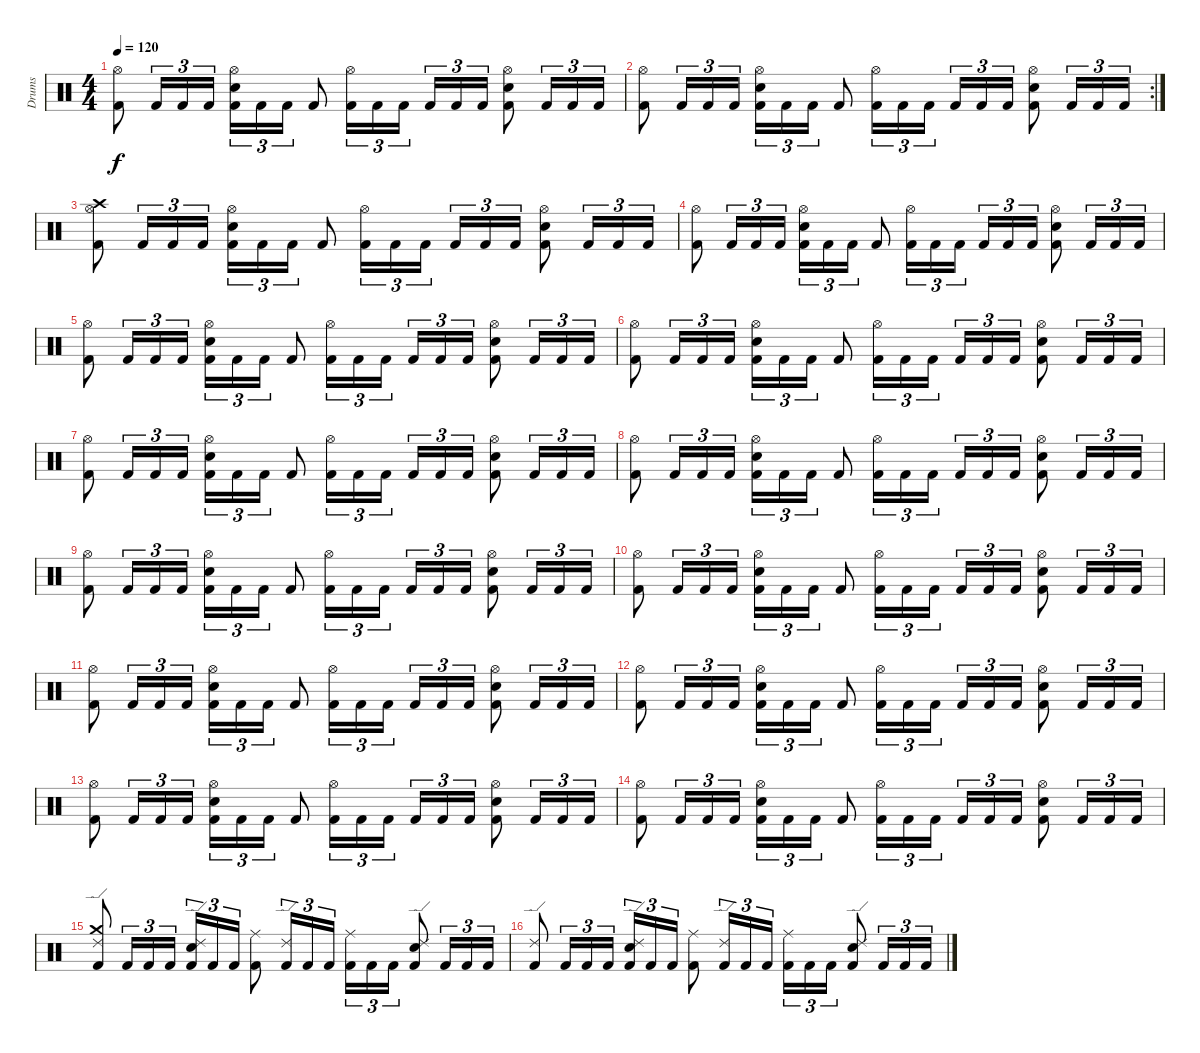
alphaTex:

\track ("Drums" "Drums") {instrument percussion}
\staff {score}
\articulation defaults
\ts (4 4)
\tempo 120
\clef neutral
\ks c
("Hi-Hat (open)" "Kick (hit) 2").8{dy f} "Kick (hit) 2".16{tu (3 2)} "Kick (hit) 2".16{tu (3 2)} "Kick (hit) 2".16{tu (3 2)} ("Hi-Hat (open)" "Electric Snare (hit)" "Kick (hit) 2").16{tu (3 2)} "Kick (hit) 2".16{tu (3 2)} "Kick (hit) 2".16{tu (3 2)} "Kick (hit) 2".8 ("Hi-Hat (open)" "Kick (hit) 2").16{tu (3 2)} "Kick (hit) 2".16{tu (3 2)} "Kick (hit) 2".16{tu (3 2)} "Kick (hit) 2".16{tu (3 2)} "Kick (hit) 2".16{tu (3 2)} "Kick (hit) 2".16{tu (3 2)} ("Hi-Hat (open)" "Electric Snare (hit)" "Kick (hit) 2").8 "Kick (hit) 2".16{tu (3 2)} "Kick (hit) 2".16{tu (3 2)} "Kick (hit) 2".16{tu (3 2)} |
\rc 2
("Hi-Hat (open)" "Kick (hit) 2").8 "Kick (hit) 2".16{tu (3 2)} "Kick (hit) 2".16{tu (3 2)} "Kick (hit) 2".16{tu (3 2)} ("Hi-Hat (open)" "Electric Snare (hit)" "Kick (hit) 2").16{tu (3 2)} "Kick (hit) 2".16{tu (3 2)} "Kick (hit) 2".16{tu (3 2)} "Kick (hit) 2".8 ("Hi-Hat (open)" "Kick (hit) 2").16{tu (3 2)} "Kick (hit) 2".16{tu (3 2)} "Kick (hit) 2".16{tu (3 2)} "Kick (hit) 2".16{tu (3 2)} "Kick (hit) 2".16{tu (3 2)} "Kick (hit) 2".16{tu (3 2)} ("Hi-Hat (open)" "Electric Snare (hit)" "Kick (hit) 2").8 "Kick (hit) 2".16{tu (3 2)} "Kick (hit) 2".16{tu (3 2)} "Kick (hit) 2".16{tu (3 2)} |
("Crash high (hit)" "Hi-Hat (open)" "Kick (hit) 2").8 "Kick (hit) 2".16{tu (3 2)} "Kick (hit) 2".16{tu (3 2)} "Kick (hit) 2".16{tu (3 2)} ("Hi-Hat (open)" "Electric Snare (hit)" "Kick (hit) 2").16{tu (3 2)} "Kick (hit) 2".16{tu (3 2)} "Kick (hit) 2".16{tu (3 2)} "Kick (hit) 2".8 ("Hi-Hat (open)" "Kick (hit) 2").16{tu (3 2)} "Kick (hit) 2".16{tu (3 2)} "Kick (hit) 2".16{tu (3 2)} "Kick (hit) 2".16{tu (3 2)} "Kick (hit) 2".16{tu (3 2)} "Kick (hit) 2".16{tu (3 2)} ("Hi-Hat (open)" "Electric Snare (hit)" "Kick (hit) 2").8 "Kick (hit) 2".16{tu (3 2)} "Kick (hit) 2".16{tu (3 2)} "Kick (hit) 2".16{tu (3 2)} |
("Hi-Hat (open)" "Kick (hit) 2").8 "Kick (hit) 2".16{tu (3 2)} "Kick (hit) 2".16{tu (3 2)} "Kick (hit) 2".16{tu (3 2)} ("Hi-Hat (open)" "Electric Snare (hit)" "Kick (hit) 2").16{tu (3 2)} "Kick (hit) 2".16{tu (3 2)} "Kick (hit) 2".16{tu (3 2)} "Kick (hit) 2".8 ("Hi-Hat (open)" "Kick (hit) 2").16{tu (3 2)} "Kick (hit) 2".16{tu (3 2)} "Kick (hit) 2".16{tu (3 2)} "Kick (hit) 2".16{tu (3 2)} "Kick (hit) 2".16{tu (3 2)} "Kick (hit) 2".16{tu (3 2)} ("Hi-Hat (open)" "Electric Snare (hit)" "Kick (hit) 2").8 "Kick (hit) 2".16{tu (3 2)} "Kick (hit) 2".16{tu (3 2)} "Kick (hit) 2".16{tu (3 2)} |
("Hi-Hat (open)" "Kick (hit) 2").8 "Kick (hit) 2".16{tu (3 2)} "Kick (hit) 2".16{tu (3 2)} "Kick (hit) 2".16{tu (3 2)} ("Hi-Hat (open)" "Electric Snare (hit)" "Kick (hit) 2").16{tu (3 2)} "Kick (hit) 2".16{tu (3 2)} "Kick (hit) 2".16{tu (3 2)} "Kick (hit) 2".8 ("Hi-Hat (open)" "Kick (hit) 2").16{tu (3 2)} "Kick (hit) 2".16{tu (3 2)} "Kick (hit) 2".16{tu (3 2)} "Kick (hit) 2".16{tu (3 2)} "Kick (hit) 2".16{tu (3 2)} "Kick (hit) 2".16{tu (3 2)} ("Hi-Hat (open)" "Electric Snare (hit)" "Kick (hit) 2").8 "Kick (hit) 2".16{tu (3 2)} "Kick (hit) 2".16{tu (3 2)} "Kick (hit) 2".16{tu (3 2)} |
("Hi-Hat (open)" "Kick (hit) 2").8 "Kick (hit) 2".16{tu (3 2)} "Kick (hit) 2".16{tu (3 2)} "Kick (hit) 2".16{tu (3 2)} ("Hi-Hat (open)" "Electric Snare (hit)" "Kick (hit) 2").16{tu (3 2)} "Kick (hit) 2".16{tu (3 2)} "Kick (hit) 2".16{tu (3 2)} "Kick (hit) 2".8 ("Hi-Hat (open)" "Kick (hit) 2").16{tu (3 2)} "Kick (hit) 2".16{tu (3 2)} "Kick (hit) 2".16{tu (3 2)} "Kick (hit) 2".16{tu (3 2)} "Kick (hit) 2".16{tu (3 2)} "Kick (hit) 2".16{tu (3 2)} ("Hi-Hat (open)" "Electric Snare (hit)" "Kick (hit) 2").8 "Kick (hit) 2".16{tu (3 2)} "Kick (hit) 2".16{tu (3 2)} "Kick (hit) 2".16{tu (3 2)} |
("Hi-Hat (open)" "Kick (hit) 2").8 "Kick (hit) 2".16{tu (3 2)} "Kick (hit) 2".16{tu (3 2)} "Kick (hit) 2".16{tu (3 2)} ("Hi-Hat (open)" "Electric Snare (hit)" "Kick (hit) 2").16{tu (3 2)} "Kick (hit) 2".16{tu (3 2)} "Kick (hit) 2".16{tu (3 2)} "Kick (hit) 2".8 ("Hi-Hat (open)" "Kick (hit) 2").16{tu (3 2)} "Kick (hit) 2".16{tu (3 2)} "Kick (hit) 2".16{tu (3 2)} "Kick (hit) 2".16{tu (3 2)} "Kick (hit) 2".16{tu (3 2)} "Kick (hit) 2".16{tu (3 2)} ("Hi-Hat (open)" "Electric Snare (hit)" "Kick (hit) 2").8 "Kick (hit) 2".16{tu (3 2)} "Kick (hit) 2".16{tu (3 2)} "Kick (hit) 2".16{tu (3 2)} |
("Hi-Hat (open)" "Kick (hit) 2").8 "Kick (hit) 2".16{tu (3 2)} "Kick (hit) 2".16{tu (3 2)} "Kick (hit) 2".16{tu (3 2)} ("Hi-Hat (open)" "Electric Snare (hit)" "Kick (hit) 2").16{tu (3 2)} "Kick (hit) 2".16{tu (3 2)} "Kick (hit) 2".16{tu (3 2)} "Kick (hit) 2".8 ("Hi-Hat (open)" "Kick (hit) 2").16{tu (3 2)} "Kick (hit) 2".16{tu (3 2)} "Kick (hit) 2".16{tu (3 2)} "Kick (hit) 2".16{tu (3 2)} "Kick (hit) 2".16{tu (3 2)} "Kick (hit) 2".16{tu (3 2)} ("Hi-Hat (open)" "Electric Snare (hit)" "Kick (hit) 2").8 "Kick (hit) 2".16{tu (3 2)} "Kick (hit) 2".16{tu (3 2)} "Kick (hit) 2".16{tu (3 2)} |
("Hi-Hat (open)" "Kick (hit) 2").8 "Kick (hit) 2".16{tu (3 2)} "Kick (hit) 2".16{tu (3 2)} "Kick (hit) 2".16{tu (3 2)} ("Hi-Hat (open)" "Electric Snare (hit)" "Kick (hit) 2").16{tu (3 2)} "Kick (hit) 2".16{tu (3 2)} "Kick (hit) 2".16{tu (3 2)} "Kick (hit) 2".8 ("Hi-Hat (open)" "Kick (hit) 2").16{tu (3 2)} "Kick (hit) 2".16{tu (3 2)} "Kick (hit) 2".16{tu (3 2)} "Kick (hit) 2".16{tu (3 2)} "Kick (hit) 2".16{tu (3 2)} "Kick (hit) 2".16{tu (3 2)} ("Hi-Hat (open)" "Electric Snare (hit)" "Kick (hit) 2").8 "Kick (hit) 2".16{tu (3 2)} "Kick (hit) 2".16{tu (3 2)} "Kick (hit) 2".16{tu (3 2)} |
("Hi-Hat (open)" "Kick (hit) 2").8 "Kick (hit) 2".16{tu (3 2)} "Kick (hit) 2".16{tu (3 2)} "Kick (hit) 2".16{tu (3 2)} ("Hi-Hat (open)" "Electric Snare (hit)" "Kick (hit) 2").16{tu (3 2)} "Kick (hit) 2".16{tu (3 2)} "Kick (hit) 2".16{tu (3 2)} "Kick (hit) 2".8 ("Hi-Hat (open)" "Kick (hit) 2").16{tu (3 2)} "Kick (hit) 2".16{tu (3 2)} "Kick (hit) 2".16{tu (3 2)} "Kick (hit) 2".16{tu (3 2)} "Kick (hit) 2".16{tu (3 2)} "Kick (hit) 2".16{tu (3 2)} ("Hi-Hat (open)" "Electric Snare (hit)" "Kick (hit) 2").8 "Kick (hit) 2".16{tu (3 2)} "Kick (hit) 2".16{tu (3 2)} "Kick (hit) 2".16{tu (3 2)} |
("Hi-Hat (open)" "Kick (hit) 2").8 "Kick (hit) 2".16{tu (3 2)} "Kick (hit) 2".16{tu (3 2)} "Kick (hit) 2".16{tu (3 2)} ("Hi-Hat (open)" "Electric Snare (hit)" "Kick (hit) 2").16{tu (3 2)} "Kick (hit) 2".16{tu (3 2)} "Kick (hit) 2".16{tu (3 2)} "Kick (hit) 2".8 ("Hi-Hat (open)" "Kick (hit) 2").16{tu (3 2)} "Kick (hit) 2".16{tu (3 2)} "Kick (hit) 2".16{tu (3 2)} "Kick (hit) 2".16{tu (3 2)} "Kick (hit) 2".16{tu (3 2)} "Kick (hit) 2".16{tu (3 2)} ("Hi-Hat (open)" "Electric Snare (hit)" "Kick (hit) 2").8 "Kick (hit) 2".16{tu (3 2)} "Kick (hit) 2".16{tu (3 2)} "Kick (hit) 2".16{tu (3 2)} |
("Hi-Hat (open)" "Kick (hit) 2").8 "Kick (hit) 2".16{tu (3 2)} "Kick (hit) 2".16{tu (3 2)} "Kick (hit) 2".16{tu (3 2)} ("Hi-Hat (open)" "Electric Snare (hit)" "Kick (hit) 2").16{tu (3 2)} "Kick (hit) 2".16{tu (3 2)} "Kick (hit) 2".16{tu (3 2)} "Kick (hit) 2".8 ("Hi-Hat (open)" "Kick (hit) 2").16{tu (3 2)} "Kick (hit) 2".16{tu (3 2)} "Kick (hit) 2".16{tu (3 2)} "Kick (hit) 2".16{tu (3 2)} "Kick (hit) 2".16{tu (3 2)} "Kick (hit) 2".16{tu (3 2)} ("Hi-Hat (open)" "Electric Snare (hit)" "Kick (hit) 2").8 "Kick (hit) 2".16{tu (3 2)} "Kick (hit) 2".16{tu (3 2)} "Kick (hit) 2".16{tu (3 2)} |
("Hi-Hat (open)" "Kick (hit) 2").8 "Kick (hit) 2".16{tu (3 2)} "Kick (hit) 2".16{tu (3 2)} "Kick (hit) 2".16{tu (3 2)} ("Hi-Hat (open)" "Electric Snare (hit)" "Kick (hit) 2").16{tu (3 2)} "Kick (hit) 2".16{tu (3 2)} "Kick (hit) 2".16{tu (3 2)} "Kick (hit) 2".8 ("Hi-Hat (open)" "Kick (hit) 2").16{tu (3 2)} "Kick (hit) 2".16{tu (3 2)} "Kick (hit) 2".16{tu (3 2)} "Kick (hit) 2".16{tu (3 2)} "Kick (hit) 2".16{tu (3 2)} "Kick (hit) 2".16{tu (3 2)} ("Hi-Hat (open)" "Electric Snare (hit)" "Kick (hit) 2").8 "Kick (hit) 2".16{tu (3 2)} "Kick (hit) 2".16{tu (3 2)} "Kick (hit) 2".16{tu (3 2)} |
("Hi-Hat (open)" "Kick (hit) 2").8 "Kick (hit) 2".16{tu (3 2)} "Kick (hit) 2".16{tu (3 2)} "Kick (hit) 2".16{tu (3 2)} ("Hi-Hat (open)" "Electric Snare (hit)" "Kick (hit) 2").16{tu (3 2)} "Kick (hit) 2".16{tu (3 2)} "Kick (hit) 2".16{tu (3 2)} "Kick (hit) 2".8 ("Hi-Hat (open)" "Kick (hit) 2").16{tu (3 2)} "Kick (hit) 2".16{tu (3 2)} "Kick (hit) 2".16{tu (3 2)} "Kick (hit) 2".16{tu (3 2)} "Kick (hit) 2".16{tu (3 2)} "Kick (hit) 2".16{tu (3 2)} ("Hi-Hat (open)" "Electric Snare (hit)" "Kick (hit) 2").8 "Kick (hit) 2".16{tu (3 2)} "Kick (hit) 2".16{tu (3 2)} "Kick (hit) 2".16{tu (3 2)} |
("Crash medium (hit)" "Ride (edge) 2" "Kick (hit) 2").8 "Kick (hit) 2".16{tu (3 2)} "Kick (hit) 2".16{tu (3 2)} "Kick (hit) 2".16{tu (3 2)} ("Ride (edge) 2" "Electric Snare (hit)" "Kick (hit) 2").16{tu (3 2)} "Kick (hit) 2".16{tu (3 2)} "Kick (hit) 2".16{tu (3 2)} ("Ride (middle)" "Kick (hit) 2").8 ("Ride (edge) 2" "Kick (hit) 2").16{tu (3 2)} "Kick (hit) 2".16{tu (3 2)} "Kick (hit) 2".16{tu (3 2)} ("Ride (middle)" "Kick (hit) 2").16{tu (3 2)} "Kick (hit) 2".16{tu (3 2)} "Kick (hit) 2".16{tu (3 2)} ("Ride (edge) 2" "Electric Snare (hit)" "Kick (hit) 2").8 "Kick (hit) 2".16{tu (3 2)} "Kick (hit) 2".16{tu (3 2)} "Kick (hit) 2".16{tu (3 2)} |
("Ride (edge) 2" "Kick (hit) 2").8 "Kick (hit) 2".16{tu (3 2)} "Kick (hit) 2".16{tu (3 2)} "Kick (hit) 2".16{tu (3 2)} ("Ride (edge) 2" "Electric Snare (hit)" "Kick (hit) 2").16{tu (3 2)} "Kick (hit) 2".16{tu (3 2)} "Kick (hit) 2".16{tu (3 2)} ("Ride (middle)" "Kick (hit) 2").8 ("Ride (edge) 2" "Kick (hit) 2").16{tu (3 2)} "Kick (hit) 2".16{tu (3 2)} "Kick (hit) 2".16{tu (3 2)} ("Ride (middle)" "Kick (hit) 2").16{tu (3 2)} "Kick (hit) 2".16{tu (3 2)} "Kick (hit) 2".16{tu (3 2)} ("Ride (edge) 2" "Electric Snare (hit)" "Kick (hit) 2").8 "Kick (hit) 2".16{tu (3 2)} "Kick (hit) 2".16{tu (3 2)} "Kick (hit) 2".16{tu (3 2)}
